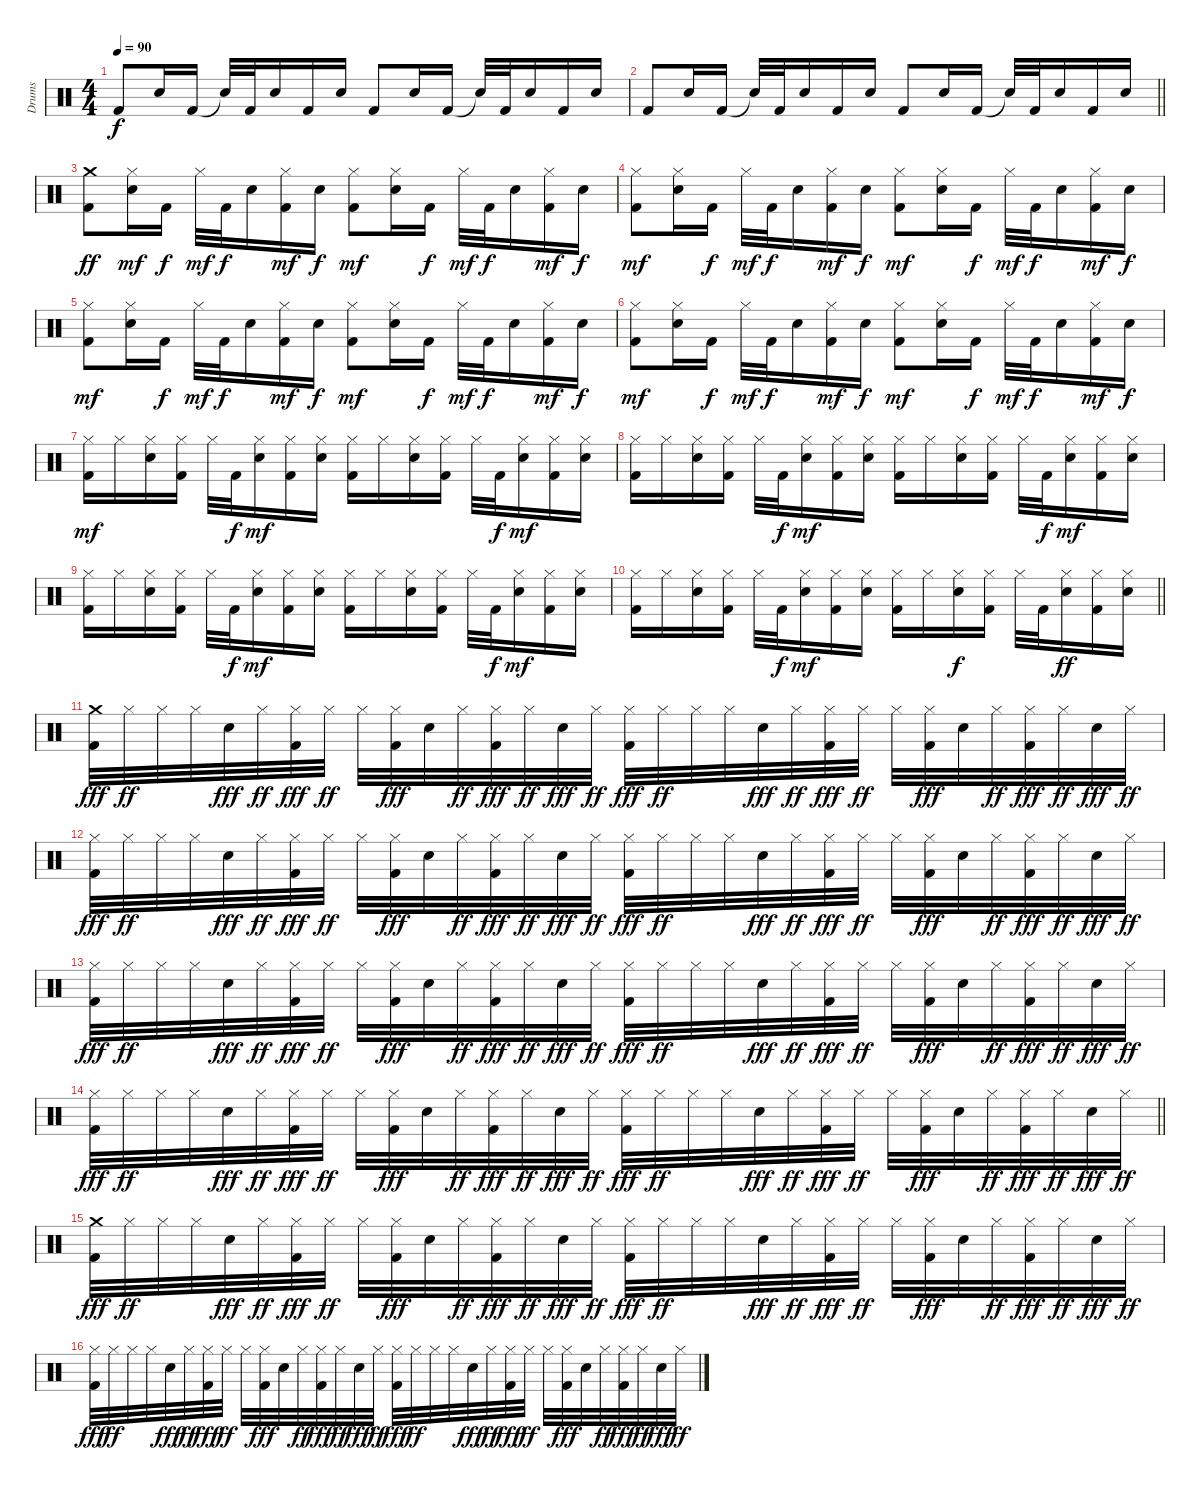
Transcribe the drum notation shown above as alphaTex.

\track ("Drums" "Drums") {instrument percussion}
\staff {score}
\articulation defaults
\ts (4 4)
\tempo 90
\clef neutral
\ks c "Kick (hit) 2".8{dy f} "Snare (hit) 2".16 "Kick (hit) 2".16 "Snare (hit)"{t}.32 "Kick (hit) 2".32 "Snare (hit) 2".16 "Kick (hit) 2".16 "Snare (hit) 2".16 "Kick (hit) 2".8 "Snare (hit) 2".16 "Kick (hit) 2".16 "Snare (hit)"{t}.32 "Kick (hit) 2".32 "Snare (hit) 2".16 "Kick (hit) 2".16 "Snare (hit) 2".16
|
\barLineRight lightlight "Kick (hit) 2".8 "Snare (hit) 2".16 "Kick (hit) 2".16 "Snare (hit)"{t}.32 "Kick (hit) 2".32 "Snare (hit) 2".16 "Kick (hit) 2".16 "Snare (hit) 2".16 "Kick (hit) 2".8 "Snare (hit) 2".16 "Kick (hit) 2".16 "Snare (hit)"{t}.32 "Kick (hit) 2".32 "Snare (hit) 2".16 "Kick (hit) 2".16 "Snare (hit) 2".16
|
\section ("" "")
("Crash medium (hit)" "Kick (hit) 2").8{dy ff} ("Hi-Hat (closed)" "Snare (hit) 2").16{dy mf} "Kick (hit) 2".16{dy f} "Hi-Hat (closed)".32{dy mf} "Kick (hit) 2".32{dy f} "Snare (hit) 2".16 ("Hi-Hat (closed)" "Kick (hit) 2").16{dy mf} "Snare (hit) 2".16{dy f} ("Hi-Hat (closed)" "Kick (hit) 2").8{dy mf} ("Hi-Hat (closed)" "Snare (hit) 2").16 "Kick (hit) 2".16{dy f} "Hi-Hat (closed)".32{dy mf} "Kick (hit) 2".32{dy f} "Snare (hit) 2".16 ("Hi-Hat (closed)" "Kick (hit) 2").16{dy mf} "Snare (hit) 2".16{dy f} |
("Hi-Hat (closed)" "Kick (hit) 2").8{dy mf} ("Hi-Hat (closed)" "Snare (hit) 2").16 "Kick (hit) 2".16{dy f} "Hi-Hat (closed)".32{dy mf} "Kick (hit) 2".32{dy f} "Snare (hit) 2".16 ("Hi-Hat (closed)" "Kick (hit) 2").16{dy mf} "Snare (hit) 2".16{dy f} ("Hi-Hat (closed)" "Kick (hit) 2").8{dy mf} ("Hi-Hat (closed)" "Snare (hit) 2").16 "Kick (hit) 2".16{dy f} "Hi-Hat (closed)".32{dy mf} "Kick (hit) 2".32{dy f} "Snare (hit) 2".16 ("Hi-Hat (closed)" "Kick (hit) 2").16{dy mf} "Snare (hit) 2".16{dy f} |
("Hi-Hat (closed)" "Kick (hit) 2").8{dy mf} ("Hi-Hat (closed)" "Snare (hit) 2").16 "Kick (hit) 2".16{dy f} "Hi-Hat (closed)".32{dy mf} "Kick (hit) 2".32{dy f} "Snare (hit) 2".16 ("Hi-Hat (closed)" "Kick (hit) 2").16{dy mf} "Snare (hit) 2".16{dy f} ("Hi-Hat (closed)" "Kick (hit) 2").8{dy mf} ("Hi-Hat (closed)" "Snare (hit) 2").16 "Kick (hit) 2".16{dy f} "Hi-Hat (closed)".32{dy mf} "Kick (hit) 2".32{dy f} "Snare (hit) 2".16 ("Hi-Hat (closed)" "Kick (hit) 2").16{dy mf} "Snare (hit) 2".16{dy f} |
("Hi-Hat (closed)" "Kick (hit) 2").8{dy mf} ("Hi-Hat (closed)" "Snare (hit) 2").16 "Kick (hit) 2".16{dy f} "Hi-Hat (closed)".32{dy mf} "Kick (hit) 2".32{dy f} "Snare (hit) 2".16 ("Hi-Hat (closed)" "Kick (hit) 2").16{dy mf} "Snare (hit) 2".16{dy f} ("Hi-Hat (closed)" "Kick (hit) 2").8{dy mf} ("Hi-Hat (closed)" "Snare (hit) 2").16 "Kick (hit) 2".16{dy f} "Hi-Hat (closed)".32{dy mf} "Kick (hit) 2".32{dy f} "Snare (hit) 2".16 ("Hi-Hat (closed)" "Kick (hit) 2").16{dy mf} "Snare (hit) 2".16{dy f} |
("Hi-Hat (closed)" "Kick (hit) 2").16{dy mf} "Hi-Hat (closed)".16 ("Hi-Hat (closed)" "Snare (hit) 2").16 ("Hi-Hat (closed)" "Kick (hit) 2").16 "Hi-Hat (closed)".32 "Kick (hit) 2".32{dy f} ("Hi-Hat (closed)" "Snare (hit) 2").16{dy mf} ("Hi-Hat (closed)" "Kick (hit) 2").16 ("Hi-Hat (closed)" "Snare (hit) 2").16 ("Hi-Hat (closed)" "Kick (hit) 2").16 "Hi-Hat (closed)".16 ("Hi-Hat (closed)" "Snare (hit) 2").16 ("Hi-Hat (closed)" "Kick (hit) 2").16 "Hi-Hat (closed)".32 "Kick (hit) 2".32{dy f} ("Hi-Hat (closed)" "Snare (hit) 2").16{dy mf} ("Hi-Hat (closed)" "Kick (hit) 2").16 ("Hi-Hat (closed)" "Snare (hit) 2").16 |
("Hi-Hat (closed)" "Kick (hit) 2").16 "Hi-Hat (closed)".16 ("Hi-Hat (closed)" "Snare (hit) 2").16 ("Hi-Hat (closed)" "Kick (hit) 2").16 "Hi-Hat (closed)".32 "Kick (hit) 2".32{dy f} ("Hi-Hat (closed)" "Snare (hit) 2").16{dy mf} ("Hi-Hat (closed)" "Kick (hit) 2").16 ("Hi-Hat (closed)" "Snare (hit) 2").16 ("Hi-Hat (closed)" "Kick (hit) 2").16 "Hi-Hat (closed)".16 ("Hi-Hat (closed)" "Snare (hit) 2").16 ("Hi-Hat (closed)" "Kick (hit) 2").16 "Hi-Hat (closed)".32 "Kick (hit) 2".32{dy f} ("Hi-Hat (closed)" "Snare (hit) 2").16{dy mf} ("Hi-Hat (closed)" "Kick (hit) 2").16 ("Hi-Hat (closed)" "Snare (hit) 2").16 |
("Hi-Hat (closed)" "Kick (hit) 2").16 "Hi-Hat (closed)".16 ("Hi-Hat (closed)" "Snare (hit) 2").16 ("Hi-Hat (closed)" "Kick (hit) 2").16 "Hi-Hat (closed)".32 "Kick (hit) 2".32{dy f} ("Hi-Hat (closed)" "Snare (hit) 2").16{dy mf} ("Hi-Hat (closed)" "Kick (hit) 2").16 ("Hi-Hat (closed)" "Snare (hit) 2").16 ("Hi-Hat (closed)" "Kick (hit) 2").16 "Hi-Hat (closed)".16 ("Hi-Hat (closed)" "Snare (hit) 2").16 ("Hi-Hat (closed)" "Kick (hit) 2").16 "Hi-Hat (closed)".32 "Kick (hit) 2".32{dy f} ("Hi-Hat (closed)" "Snare (hit) 2").16{dy mf} ("Hi-Hat (closed)" "Kick (hit) 2").16 ("Hi-Hat (closed)" "Snare (hit) 2").16 |
\barLineRight lightlight
("Hi-Hat (closed)" "Kick (hit) 2").16 "Hi-Hat (closed)".16 ("Hi-Hat (closed)" "Snare (hit) 2").16 ("Hi-Hat (closed)" "Kick (hit) 2").16 "Hi-Hat (closed)".32 "Kick (hit) 2".32{dy f} ("Hi-Hat (closed)" "Snare (hit) 2").16{dy mf} ("Hi-Hat (closed)" "Kick (hit) 2").16 ("Hi-Hat (closed)" "Snare (hit) 2").16 ("Hi-Hat (closed)" "Kick (hit) 2").16 "Hi-Hat (closed)".16 ("Hi-Hat (closed)" "Snare (hit) 2").16{dy f} ("Hi-Hat (closed)" "Kick (hit) 2").16 "Hi-Hat (closed)".32 "Kick (hit) 2".32 ("Hi-Hat (closed)" "Snare (hit) 2").16{dy ff} ("Hi-Hat (closed)" "Kick (hit) 2").16 ("Hi-Hat (closed)" "Snare (hit) 2").16 |
\section ("" "")
("Crash medium (hit)" "Kick (hit) 2").32{dy fff} "Hi-Hat (closed)".32{dy ff} "Hi-Hat (closed)".32 "Hi-Hat (closed)".32 "Snare (hit) 2".32{dy fff} "Hi-Hat (closed)".32{dy ff} ("Hi-Hat (closed)" "Kick (hit) 2").32{dy fff} "Hi-Hat (closed)".32{dy ff} "Hi-Hat (closed)".32 ("Hi-Hat (closed)" "Kick (hit) 2").32{dy fff} "Snare (hit) 2".32 "Hi-Hat (closed)".32{dy ff} ("Hi-Hat (closed)" "Kick (hit) 2").32{dy fff} "Hi-Hat (closed)".32{dy ff} "Snare (hit) 2".32{dy fff} "Hi-Hat (closed)".32{dy ff} ("Hi-Hat (closed)" "Kick (hit) 2").32{dy fff} "Hi-Hat (closed)".32{dy ff} "Hi-Hat (closed)".32 "Hi-Hat (closed)".32 "Snare (hit) 2".32{dy fff} "Hi-Hat (closed)".32{dy ff} ("Hi-Hat (closed)" "Kick (hit) 2").32{dy fff} "Hi-Hat (closed)".32{dy ff} "Hi-Hat (closed)".32 ("Hi-Hat (closed)" "Kick (hit) 2").32{dy fff} "Snare (hit) 2".32 "Hi-Hat (closed)".32{dy ff} ("Hi-Hat (closed)" "Kick (hit) 2").32{dy fff} "Hi-Hat (closed)".32{dy ff} "Snare (hit) 2".32{dy fff} "Hi-Hat (closed)".32{dy ff} |
("Hi-Hat (closed)" "Kick (hit) 2").32{dy fff} "Hi-Hat (closed)".32{dy ff} "Hi-Hat (closed)".32 "Hi-Hat (closed)".32 "Snare (hit) 2".32{dy fff} "Hi-Hat (closed)".32{dy ff} ("Hi-Hat (closed)" "Kick (hit) 2").32{dy fff} "Hi-Hat (closed)".32{dy ff} "Hi-Hat (closed)".32 ("Hi-Hat (closed)" "Kick (hit) 2").32{dy fff} "Snare (hit) 2".32 "Hi-Hat (closed)".32{dy ff} ("Hi-Hat (closed)" "Kick (hit) 2").32{dy fff} "Hi-Hat (closed)".32{dy ff} "Snare (hit) 2".32{dy fff} "Hi-Hat (closed)".32{dy ff} ("Hi-Hat (closed)" "Kick (hit) 2").32{dy fff} "Hi-Hat (closed)".32{dy ff} "Hi-Hat (closed)".32 "Hi-Hat (closed)".32 "Snare (hit) 2".32{dy fff} "Hi-Hat (closed)".32{dy ff} ("Hi-Hat (closed)" "Kick (hit) 2").32{dy fff} "Hi-Hat (closed)".32{dy ff} "Hi-Hat (closed)".32 ("Hi-Hat (closed)" "Kick (hit) 2").32{dy fff} "Snare (hit) 2".32 "Hi-Hat (closed)".32{dy ff} ("Hi-Hat (closed)" "Kick (hit) 2").32{dy fff} "Hi-Hat (closed)".32{dy ff} "Snare (hit) 2".32{dy fff} "Hi-Hat (closed)".32{dy ff} |
("Hi-Hat (closed)" "Kick (hit) 2").32{dy fff} "Hi-Hat (closed)".32{dy ff} "Hi-Hat (closed)".32 "Hi-Hat (closed)".32 "Snare (hit) 2".32{dy fff} "Hi-Hat (closed)".32{dy ff} ("Hi-Hat (closed)" "Kick (hit) 2").32{dy fff} "Hi-Hat (closed)".32{dy ff} "Hi-Hat (closed)".32 ("Hi-Hat (closed)" "Kick (hit) 2").32{dy fff} "Snare (hit) 2".32 "Hi-Hat (closed)".32{dy ff} ("Hi-Hat (closed)" "Kick (hit) 2").32{dy fff} "Hi-Hat (closed)".32{dy ff} "Snare (hit) 2".32{dy fff} "Hi-Hat (closed)".32{dy ff} ("Hi-Hat (closed)" "Kick (hit) 2").32{dy fff} "Hi-Hat (closed)".32{dy ff} "Hi-Hat (closed)".32 "Hi-Hat (closed)".32 "Snare (hit) 2".32{dy fff} "Hi-Hat (closed)".32{dy ff} ("Hi-Hat (closed)" "Kick (hit) 2").32{dy fff} "Hi-Hat (closed)".32{dy ff} "Hi-Hat (closed)".32 ("Hi-Hat (closed)" "Kick (hit) 2").32{dy fff} "Snare (hit) 2".32 "Hi-Hat (closed)".32{dy ff} ("Hi-Hat (closed)" "Kick (hit) 2").32{dy fff} "Hi-Hat (closed)".32{dy ff} "Snare (hit) 2".32{dy fff} "Hi-Hat (closed)".32{dy ff} |
\barLineRight lightlight
("Hi-Hat (closed)" "Kick (hit) 2").32{dy fff} "Hi-Hat (closed)".32{dy ff} "Hi-Hat (closed)".32 "Hi-Hat (closed)".32 "Snare (hit) 2".32{dy fff} "Hi-Hat (closed)".32{dy ff} ("Hi-Hat (closed)" "Kick (hit) 2").32{dy fff} "Hi-Hat (closed)".32{dy ff} "Hi-Hat (closed)".32 ("Hi-Hat (closed)" "Kick (hit) 2").32{dy fff} "Snare (hit) 2".32 "Hi-Hat (closed)".32{dy ff} ("Hi-Hat (closed)" "Kick (hit) 2").32{dy fff} "Hi-Hat (closed)".32{dy ff} "Snare (hit) 2".32{dy fff} "Hi-Hat (closed)".32{dy ff} ("Hi-Hat (closed)" "Kick (hit) 2").32{dy fff} "Hi-Hat (closed)".32{dy ff} "Hi-Hat (closed)".32 "Hi-Hat (closed)".32 "Snare (hit) 2".32{dy fff} "Hi-Hat (closed)".32{dy ff} ("Hi-Hat (closed)" "Kick (hit) 2").32{dy fff} "Hi-Hat (closed)".32{dy ff} "Hi-Hat (closed)".32 ("Hi-Hat (closed)" "Kick (hit) 2").32{dy fff} "Snare (hit) 2".32 "Hi-Hat (closed)".32{dy ff} ("Hi-Hat (closed)" "Kick (hit) 2").32{dy fff} "Hi-Hat (closed)".32{dy ff} "Snare (hit) 2".32{dy fff} "Hi-Hat (closed)".32{dy ff} |
("Crash medium (hit)" "Kick (hit) 2").32{dy fff} "Hi-Hat (closed)".32{dy ff} "Hi-Hat (closed)".32 "Hi-Hat (closed)".32 "Snare (hit) 2".32{dy fff} "Hi-Hat (closed)".32{dy ff} ("Hi-Hat (closed)" "Kick (hit) 2").32{dy fff} "Hi-Hat (closed)".32{dy ff} "Hi-Hat (closed)".32 ("Hi-Hat (closed)" "Kick (hit) 2").32{dy fff} "Snare (hit) 2".32 "Hi-Hat (closed)".32{dy ff} ("Hi-Hat (closed)" "Kick (hit) 2").32{dy fff} "Hi-Hat (closed)".32{dy ff} "Snare (hit) 2".32{dy fff} "Hi-Hat (closed)".32{dy ff} ("Hi-Hat (closed)" "Kick (hit) 2").32{dy fff} "Hi-Hat (closed)".32{dy ff} "Hi-Hat (closed)".32 "Hi-Hat (closed)".32 "Snare (hit) 2".32{dy fff} "Hi-Hat (closed)".32{dy ff} ("Hi-Hat (closed)" "Kick (hit) 2").32{dy fff} "Hi-Hat (closed)".32{dy ff} "Hi-Hat (closed)".32 ("Hi-Hat (closed)" "Kick (hit) 2").32{dy fff} "Snare (hit) 2".32 "Hi-Hat (closed)".32{dy ff} ("Hi-Hat (closed)" "Kick (hit) 2").32{dy fff} "Hi-Hat (closed)".32{dy ff} "Snare (hit) 2".32{dy fff} "Hi-Hat (closed)".32{dy ff} |
("Hi-Hat (closed)" "Kick (hit) 2").32{dy fff} "Hi-Hat (closed)".32{dy ff} "Hi-Hat (closed)".32 "Hi-Hat (closed)".32 "Snare (hit) 2".32{dy fff} "Hi-Hat (closed)".32{dy ff} ("Hi-Hat (closed)" "Kick (hit) 2").32{dy fff} "Hi-Hat (closed)".32{dy ff} "Hi-Hat (closed)".32 ("Hi-Hat (closed)" "Kick (hit) 2").32{dy fff} "Snare (hit) 2".32 "Hi-Hat (closed)".32{dy ff} ("Hi-Hat (closed)" "Kick (hit) 2").32{dy fff} "Hi-Hat (closed)".32{dy ff} "Snare (hit) 2".32{dy fff} "Hi-Hat (closed)".32{dy ff} ("Hi-Hat (closed)" "Kick (hit) 2").32{dy fff} "Hi-Hat (closed)".32{dy ff} "Hi-Hat (closed)".32 "Hi-Hat (closed)".32 "Snare (hit) 2".32{dy fff} "Hi-Hat (closed)".32{dy ff} ("Hi-Hat (closed)" "Kick (hit) 2").32{dy fff} "Hi-Hat (closed)".32{dy ff} "Hi-Hat (closed)".32 ("Hi-Hat (closed)" "Kick (hit) 2").32{dy fff} "Snare (hit) 2".32 "Hi-Hat (closed)".32{dy ff} ("Hi-Hat (closed)" "Kick (hit) 2").32{dy fff} "Hi-Hat (closed)".32{dy ff} "Snare (hit) 2".32{dy fff} "Hi-Hat (closed)".32{dy ff}
